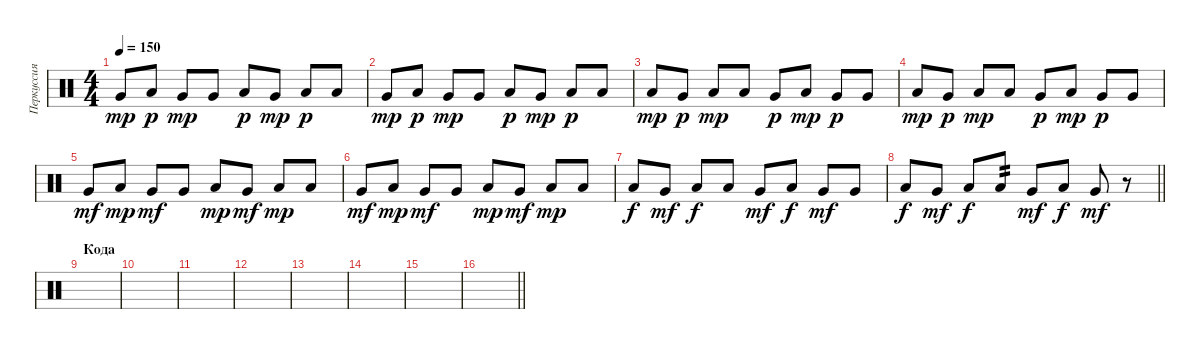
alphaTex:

\track ("Перкуссия" "Перкуссия") {instrument percussion}
\staff {score}
\articulation defaults
\ts (4 4)
\tempo 150
\clef neutral
\ks c "Very Low Tom (hit)".8{dy mp} "Low Tom (hit)".8{dy p} "Very Low Tom (hit)".8{dy mp} "Very Low Tom (hit)".8 "Low Tom (hit)".8{dy p} "Very Low Tom (hit)".8{dy mp} "Low Tom (hit)".8{dy p} "Low Tom (hit)".8
|
"Very Low Tom (hit)".8{dy mp} "Low Tom (hit)".8{dy p} "Very Low Tom (hit)".8{dy mp} "Very Low Tom (hit)".8 "Low Tom (hit)".8{dy p} "Very Low Tom (hit)".8{dy mp} "Low Tom (hit)".8{dy p} "Low Tom (hit)".8 |
"Low Floor Tom (hit)".8{dy mp} "Very Low Tom (hit)".8{dy p} "Low Floor Tom (hit)".8{dy mp} "Low Floor Tom (hit)".8 "Very Low Tom (hit)".8{dy p} "Low Floor Tom (hit)".8{dy mp} "Very Low Tom (hit)".8{dy p} "Very Low Tom (hit)".8 |
"Low Floor Tom (hit)".8{dy mp} "Very Low Tom (hit)".8{dy p} "Low Floor Tom (hit)".8{dy mp} "Low Floor Tom (hit)".8 "Very Low Tom (hit)".8{dy p} "Low Floor Tom (hit)".8{dy mp} "Very Low Tom (hit)".8{dy p} "Very Low Tom (hit)".8 |
"Very Low Tom (hit)".8{dy mf} "Low Tom (hit)".8{dy mp} "Very Low Tom (hit)".8{dy mf} "Very Low Tom (hit)".8 "Low Tom (hit)".8{dy mp} "Very Low Tom (hit)".8{dy mf} "Low Tom (hit)".8{dy mp} "Low Tom (hit)".8 |
"Very Low Tom (hit)".8{dy mf} "Low Tom (hit)".8{dy mp} "Very Low Tom (hit)".8{dy mf} "Very Low Tom (hit)".8 "Low Tom (hit)".8{dy mp} "Very Low Tom (hit)".8{dy mf} "Low Tom (hit)".8{dy mp} "Low Tom (hit)".8 |
"Low Floor Tom (hit)".8{dy f} "Very Low Tom (hit)".8{dy mf} "Low Floor Tom (hit)".8{dy f} "Low Floor Tom (hit)".8 "Very Low Tom (hit)".8{dy mf} "Low Floor Tom (hit)".8{dy f} "Very Low Tom (hit)".8{dy mf} "Very Low Tom (hit)".8 |
\barLineRight lightlight "Low Floor Tom (hit)".8{dy f} "Very Low Tom (hit)".8{dy mf} "Low Floor Tom (hit)".8{dy f} "Low Floor Tom (hit)".8{tp 2} "Very Low Tom (hit)".8{dy mf} "Low Floor Tom (hit)".8{dy f} "Very Low Tom (hit)".8{dy mf}
r.8 |
\section ("" "Кода")
|
|
|
|
|
|
|
\barLineRight lightlight
